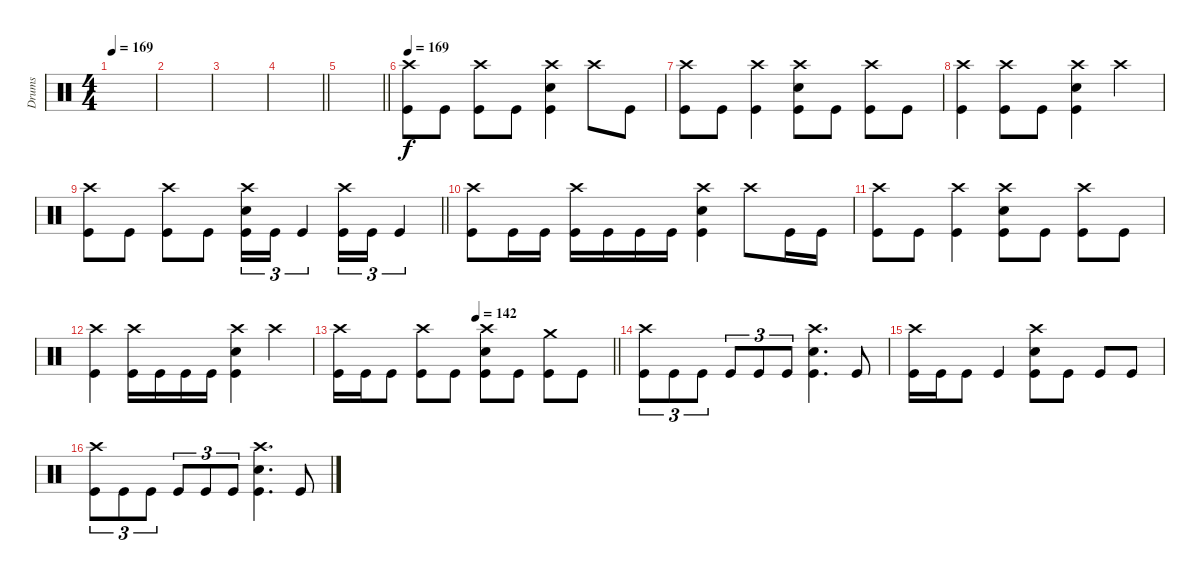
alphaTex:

\track ("Drums" "Drums") {instrument percussion}
\staff
\articulation defaults
\ts (4 4)
\tempo 169
\clef neutral
\ks c
|
|
|
\barLineRight lightlight
|
\barLineRight lightlight
|
\section ("" "")
\tempo 169
("Crash high (hit)" "Kick (hit)").8 "Kick (hit)".8 ("Crash high (hit)" "Kick (hit)").8 "Kick (hit)".8 ("Crash high (hit)" "Electric Snare (hit)" "Kick (hit)").4 "Crash high (hit)".8 "Kick (hit)".8 |
("Crash high (hit)" "Kick (hit)").8 "Kick (hit)".8 ("Crash high (hit)" "Kick (hit)").4 ("Crash high (hit)" "Electric Snare (hit)" "Kick (hit)").8 "Kick (hit)".8 ("Crash high (hit)" "Kick (hit)").8 "Kick (hit)".8 |
("Crash high (hit)" "Kick (hit)").4 ("Crash high (hit)" "Kick (hit)").8 "Kick (hit)".8 ("Crash high (hit)" "Electric Snare (hit)" "Kick (hit)").4 "Crash high (hit)".4 |
\barLineRight lightlight
("Crash high (hit)" "Kick (hit)").8 "Kick (hit)".8 ("Crash high (hit)" "Kick (hit)").8 "Kick (hit)".8 ("Crash high (hit)" "Electric Snare (hit)" "Kick (hit)").16{tu (3 2)} "Kick (hit)".16{tu (3 2)} "Kick (hit)".4{tu (3 2)} ("Crash high (hit)" "Kick (hit)").16{tu (3 2)} "Kick (hit)".16{tu (3 2)} "Kick (hit)".4{tu (3 2)} |
("Crash high (hit)" "Kick (hit)").8 "Kick (hit)".16 "Kick (hit)".16 ("Crash high (hit)" "Kick (hit)").16 "Kick (hit)".16 "Kick (hit)".16 "Kick (hit)".16 ("Crash high (hit)" "Electric Snare (hit)" "Kick (hit)").4 "Crash high (hit)".8 "Kick (hit)".16 "Kick (hit)".16 |
("Crash high (hit)" "Kick (hit)").8 "Kick (hit)".8 ("Crash high (hit)" "Kick (hit)").4 ("Crash high (hit)" "Electric Snare (hit)" "Kick (hit)").8 "Kick (hit)".8 ("Crash high (hit)" "Kick (hit)").8 "Kick (hit)".8 |
("Crash high (hit)" "Kick (hit)").4 ("Crash high (hit)" "Kick (hit)").16 "Kick (hit)".16 "Kick (hit)".16 "Kick (hit)".16 ("Crash high (hit)" "Electric Snare (hit)" "Kick (hit)").4 "Crash high (hit)".4 |
\tempo (142 0.5)
\barLineRight lightlight
("Crash high (hit)" "Kick (hit)").16 "Kick (hit)".16 "Kick (hit)".8 ("Crash high (hit)" "Kick (hit)").8 "Kick (hit)".8 ("Crash high (hit)" "Electric Snare (hit)" "Kick (hit)").8 "Kick (hit)".8 ("Crash medium (hit)" "Kick (hit)").8 "Kick (hit)".8 |
("Crash high (hit)" "Kick (hit)").8{tu (3 2)} "Kick (hit)".8{tu (3 2)} "Kick (hit)".8{tu (3 2)} "Kick (hit)".8{tu (3 2)} "Kick (hit)".8{tu (3 2)} "Kick (hit)".8{tu (3 2)} ("Crash high (hit)" "Electric Snare (hit)" "Kick (hit)").4{d} "Kick (hit)".8 |
("Crash high (hit)" "Kick (hit)").16 "Kick (hit)".16 "Kick (hit)".8 "Kick (hit)".4 ("Crash high (hit)" "Electric Snare (hit)" "Kick (hit)").8 "Kick (hit)".8 "Kick (hit)".8 "Kick (hit)".8 |
("Crash high (hit)" "Kick (hit)").8{tu (3 2)} "Kick (hit)".8{tu (3 2)} "Kick (hit)".8{tu (3 2)} "Kick (hit)".8{tu (3 2)} "Kick (hit)".8{tu (3 2)} "Kick (hit)".8{tu (3 2)} ("Crash high (hit)" "Electric Snare (hit)" "Kick (hit)").4{d} "Kick (hit)".8
